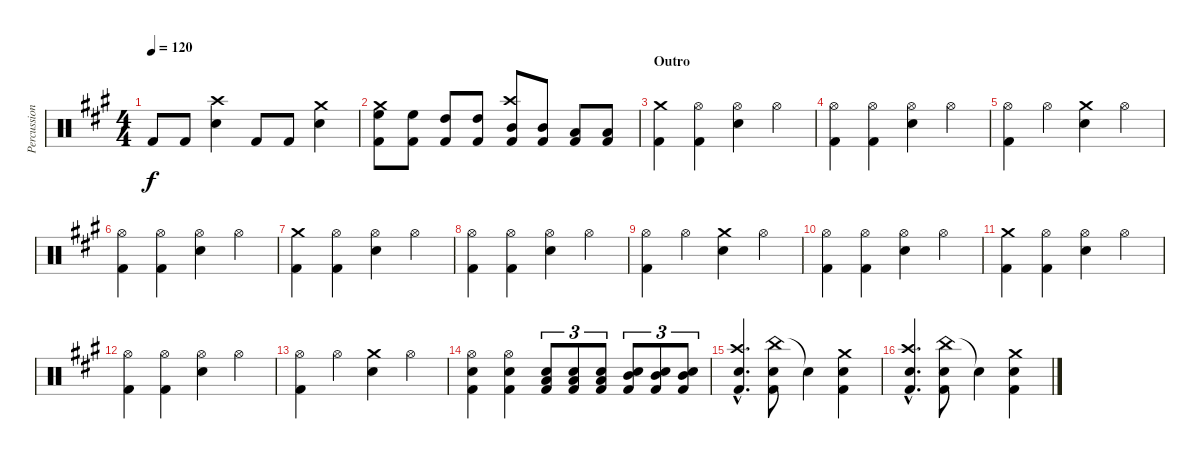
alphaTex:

\track ("Percussion" "Percussion") {instrument percussion}
\staff {score}
\articulation defaults
\ts (4 4)
\tempo 120
\clef neutral
\ks a "Kick (hit) 2".8{dy f} "Kick (hit) 2".8
("Crash high (hit)" "Snare (hit) 2").4 "Kick (hit) 2".8 "Kick (hit) 2".8 ("Crash medium (hit)" "Snare (hit) 2").4 |
("Crash medium (hit)" "High Floor Tom (hit)" "Kick (hit) 2").8 ("High Floor Tom (hit)" "Kick (hit) 2").8 ("High Tom (hit)" "Kick (hit) 2").8 ("High Tom (hit)" "Kick (hit) 2").8 ("Crash high (hit)" "Mid Tom (hit)" "Kick (hit) 2").8 ("Mid Tom (hit)" "Kick (hit) 2").8 ("Low Tom (hit)" "Kick (hit) 2").8 ("Low Tom (hit)" "Kick (hit) 2").8 |
\section ("" "Outro")
("Crash medium (hit)" "Kick (hit) 2").4 ("Hi-Hat (open)" "Kick (hit) 2").4 ("Hi-Hat (open)" "Snare (hit) 2").4 "Hi-Hat (open)".4 |
("Hi-Hat (open)" "Kick (hit) 2").4 ("Hi-Hat (open)" "Kick (hit) 2").4 ("Hi-Hat (open)" "Snare (hit) 2").4 "Hi-Hat (open)".4 |
("Hi-Hat (open)" "Kick (hit) 2").4 "Hi-Hat (open)".4 ("Crash medium (hit)" "Snare (hit) 2").4 "Hi-Hat (open)".4 |
("Hi-Hat (open)" "Kick (hit) 2").4 ("Hi-Hat (open)" "Kick (hit) 2").4 ("Hi-Hat (open)" "Snare (hit) 2").4 "Hi-Hat (open)".4 |
("Crash medium (hit)" "Kick (hit) 2").4 ("Hi-Hat (open)" "Kick (hit) 2").4 ("Hi-Hat (open)" "Snare (hit) 2").4 "Hi-Hat (open)".4 |
("Hi-Hat (open)" "Kick (hit) 2").4 ("Hi-Hat (open)" "Kick (hit) 2").4 ("Hi-Hat (open)" "Snare (hit) 2").4 "Hi-Hat (open)".4 |
("Hi-Hat (open)" "Kick (hit) 2").4 "Hi-Hat (open)".4 ("Crash medium (hit)" "Snare (hit) 2").4 "Hi-Hat (open)".4 |
("Hi-Hat (open)" "Kick (hit) 2").4 ("Hi-Hat (open)" "Kick (hit) 2").4 ("Hi-Hat (open)" "Snare (hit) 2").4 "Hi-Hat (open)".4 |
("Crash medium (hit)" "Kick (hit) 2").4 ("Hi-Hat (open)" "Kick (hit) 2").4 ("Hi-Hat (open)" "Snare (hit) 2").4 "Hi-Hat (open)".4 |
("Hi-Hat (open)" "Kick (hit) 2").4 ("Hi-Hat (open)" "Kick (hit) 2").4 ("Hi-Hat (open)" "Snare (hit) 2").4 "Hi-Hat (open)".4 |
("Hi-Hat (open)" "Kick (hit) 2").4 "Hi-Hat (open)".4 ("Crash medium (hit)" "Snare (hit) 2").4 "Hi-Hat (open)".4 |
("Hi-Hat (open)" "Snare (hit) 2" "Kick (hit) 2").4 ("Hi-Hat (open)" "Snare (hit) 2" "Kick (hit) 2").4 ("Low Tom (hit)" "Snare (hit) 2" "Kick (hit) 2").8{tu (3 2)} ("Low Tom (hit)" "Snare (hit) 2" "Kick (hit) 2").8{tu (3 2)} ("Low Tom (hit)" "Snare (hit) 2" "Kick (hit) 2").8{tu (3 2)} ("Mid Tom (hit)" "Snare (hit) 2" "Kick (hit) 2").8{tu (3 2)} ("Mid Tom (hit)" "Snare (hit) 2" "Kick (hit) 2").8{tu (3 2)} ("Mid Tom (hit)" "Snare (hit) 2" "Kick (hit) 2").8{tu (3 2)} |
("Crash high (hit)"{hac} "Snare (hit) 2"{hac} "Kick (hit) 2"{hac}).4{d} ("China (hit)" "Snare (hit) 2" "Kick (hit) 2").8 "Snare (hit)"{t}.4 ("Crash medium (hit)" "Snare (hit) 2" "Kick (hit) 2").4 |
("Crash high (hit)"{hac} "Snare (hit) 2"{hac} "Kick (hit) 2"{hac}).4{d} ("China (hit)" "Snare (hit) 2" "Kick (hit) 2").8 "Snare (hit)"{t}.4 ("Crash medium (hit)" "Snare (hit) 2" "Kick (hit) 2").4
